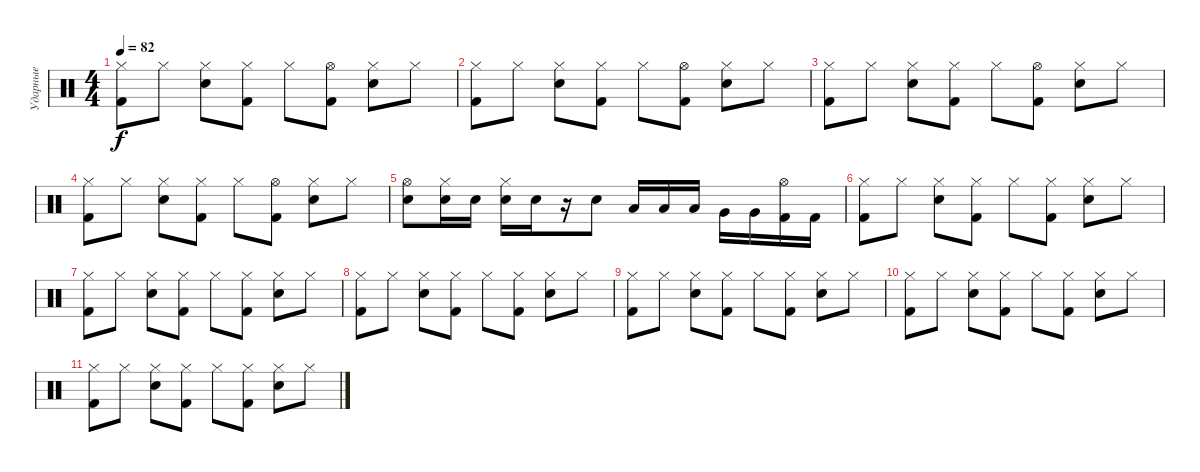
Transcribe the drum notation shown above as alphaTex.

\track ("Ударные" "Ударные") {instrument percussion}
\staff {score}
\articulation defaults
\ts (4 4)
\tempo 82
\clef neutral
\ks c
("Hi-Hat (closed)" "Kick (hit) 2").8{dy f} "Hi-Hat (closed)".8 ("Hi-Hat (closed)" "Electric Snare (hit)").8 ("Hi-Hat (closed)" "Kick (hit) 2").8 "Hi-Hat (closed)".8 ("Hi-Hat (open)" "Kick (hit) 2").8 ("Hi-Hat (closed)" "Electric Snare (hit)").8 "Hi-Hat (closed)".8 |
("Hi-Hat (closed)" "Kick (hit) 2").8 "Hi-Hat (closed)".8 ("Hi-Hat (closed)" "Electric Snare (hit)").8 ("Hi-Hat (closed)" "Kick (hit) 2").8 "Hi-Hat (closed)".8 ("Hi-Hat (open)" "Kick (hit) 2").8 ("Hi-Hat (closed)" "Electric Snare (hit)").8 "Hi-Hat (closed)".8 |
("Hi-Hat (closed)" "Kick (hit) 2").8 "Hi-Hat (closed)".8 ("Hi-Hat (closed)" "Electric Snare (hit)").8 ("Hi-Hat (closed)" "Kick (hit) 2").8 "Hi-Hat (closed)".8 ("Hi-Hat (open)" "Kick (hit) 2").8 ("Hi-Hat (closed)" "Electric Snare (hit)").8 "Hi-Hat (closed)".8 |
("Hi-Hat (closed)" "Kick (hit) 2").8 "Hi-Hat (closed)".8 ("Hi-Hat (closed)" "Electric Snare (hit)").8 ("Hi-Hat (closed)" "Kick (hit) 2").8 "Hi-Hat (closed)".8 ("Hi-Hat (open)" "Kick (hit) 2").8 ("Hi-Hat (closed)" "Electric Snare (hit)").8 "Hi-Hat (closed)".8 |
("Electric Snare (hit)" "Hi-Hat (open)").8 ("Electric Snare (hit)" "Hi-Hat (closed)").16 "Electric Snare (hit)".16 ("Electric Snare (hit)" "Hi-Hat (closed)").16 "Electric Snare (hit)".16 r.16 "Electric Snare (hit)".8 "Low Tom (hit)".16 "Low Tom (hit)".16 "Low Tom (hit)".16 "Very Low Tom (hit)".16 "Very Low Tom (hit)".16 ("Kick (hit) 2" "Hi-Hat (open)").16 "Kick (hit) 2".16 |
("Hi-Hat (closed)" "Kick (hit) 2").8 "Hi-Hat (closed)".8 ("Hi-Hat (closed)" "Electric Snare (hit)").8 ("Hi-Hat (closed)" "Kick (hit) 2").8 "Hi-Hat (closed)".8 ("Hi-Hat (closed)" "Kick (hit) 2").8 ("Hi-Hat (closed)" "Electric Snare (hit)").8 "Hi-Hat (closed)".8 |
("Hi-Hat (closed)" "Kick (hit) 2").8 "Hi-Hat (closed)".8 ("Hi-Hat (closed)" "Electric Snare (hit)").8 ("Hi-Hat (closed)" "Kick (hit) 2").8 "Hi-Hat (closed)".8 ("Hi-Hat (closed)" "Kick (hit) 2").8 ("Hi-Hat (closed)" "Electric Snare (hit)").8 "Hi-Hat (closed)".8 |
("Hi-Hat (closed)" "Kick (hit) 2").8 "Hi-Hat (closed)".8 ("Hi-Hat (closed)" "Electric Snare (hit)").8 ("Hi-Hat (closed)" "Kick (hit) 2").8 "Hi-Hat (closed)".8 ("Hi-Hat (closed)" "Kick (hit) 2").8 ("Hi-Hat (closed)" "Electric Snare (hit)").8 "Hi-Hat (closed)".8 |
("Hi-Hat (closed)" "Kick (hit) 2").8 "Hi-Hat (closed)".8 ("Hi-Hat (closed)" "Electric Snare (hit)").8 ("Hi-Hat (closed)" "Kick (hit) 2").8 "Hi-Hat (closed)".8 ("Hi-Hat (closed)" "Kick (hit) 2").8 ("Hi-Hat (closed)" "Electric Snare (hit)").8 "Hi-Hat (closed)".8 |
("Hi-Hat (closed)" "Kick (hit) 2").8 "Hi-Hat (closed)".8 ("Hi-Hat (closed)" "Electric Snare (hit)").8 ("Hi-Hat (closed)" "Kick (hit) 2").8 "Hi-Hat (closed)".8 ("Hi-Hat (closed)" "Kick (hit) 2").8 ("Hi-Hat (closed)" "Electric Snare (hit)").8 "Hi-Hat (closed)".8 |
("Hi-Hat (closed)" "Kick (hit) 2").8 "Hi-Hat (closed)".8 ("Hi-Hat (closed)" "Electric Snare (hit)").8 ("Hi-Hat (closed)" "Kick (hit) 2").8 "Hi-Hat (closed)".8 ("Hi-Hat (closed)" "Kick (hit) 2").8 ("Hi-Hat (closed)" "Electric Snare (hit)").8 "Hi-Hat (closed)".8
